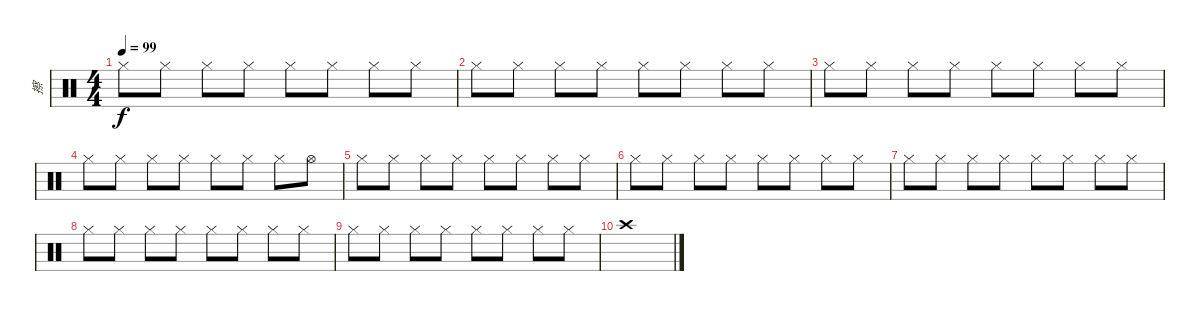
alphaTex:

\track ("擦" "擦") {instrument percussion}
\staff {score}
\articulation defaults
\ts (4 4)
\tempo 99
\clef neutral
\ks c "Hi-Hat (closed)".8{dy f} "Hi-Hat (closed)".8 "Hi-Hat (closed)".8 "Hi-Hat (closed)".8 "Hi-Hat (closed)".8 "Hi-Hat (closed)".8 "Hi-Hat (closed)".8 "Hi-Hat (closed)".8
|
"Hi-Hat (closed)".8 "Hi-Hat (closed)".8 "Hi-Hat (closed)".8 "Hi-Hat (closed)".8 "Hi-Hat (closed)".8 "Hi-Hat (closed)".8 "Hi-Hat (closed)".8 "Hi-Hat (closed)".8 |
"Hi-Hat (closed)".8 "Hi-Hat (closed)".8 "Hi-Hat (closed)".8 "Hi-Hat (closed)".8 "Hi-Hat (closed)".8 "Hi-Hat (closed)".8 "Hi-Hat (closed)".8 "Hi-Hat (closed)".8 |
"Hi-Hat (closed)".8 "Hi-Hat (closed)".8 "Hi-Hat (closed)".8 "Hi-Hat (closed)".8 "Hi-Hat (closed)".8 "Hi-Hat (closed)".8 "Hi-Hat (closed)".8 "Hi-Hat (open)".8 |
"Hi-Hat (closed)".8 "Hi-Hat (closed)".8 "Hi-Hat (closed)".8 "Hi-Hat (closed)".8 "Hi-Hat (closed)".8 "Hi-Hat (closed)".8 "Hi-Hat (closed)".8 "Hi-Hat (closed)".8 |
"Hi-Hat (closed)".8 "Hi-Hat (closed)".8 "Hi-Hat (closed)".8 "Hi-Hat (closed)".8 "Hi-Hat (closed)".8 "Hi-Hat (closed)".8 "Hi-Hat (closed)".8 "Hi-Hat (closed)".8 |
"Hi-Hat (closed)".8 "Hi-Hat (closed)".8 "Hi-Hat (closed)".8 "Hi-Hat (closed)".8 "Hi-Hat (closed)".8 "Hi-Hat (closed)".8 "Hi-Hat (closed)".8 "Hi-Hat (closed)".8 |
"Hi-Hat (closed)".8 "Hi-Hat (closed)".8 "Hi-Hat (closed)".8 "Hi-Hat (closed)".8 "Hi-Hat (closed)".8 "Hi-Hat (closed)".8 "Hi-Hat (closed)".8 "Hi-Hat (closed)".8 |
"Hi-Hat (closed)".8 "Hi-Hat (closed)".8 "Hi-Hat (closed)".8 "Hi-Hat (closed)".8 "Hi-Hat (closed)".8 "Hi-Hat (closed)".8 "Hi-Hat (closed)".8 "Hi-Hat (closed)".8 |
"Crash high (hit)".1
